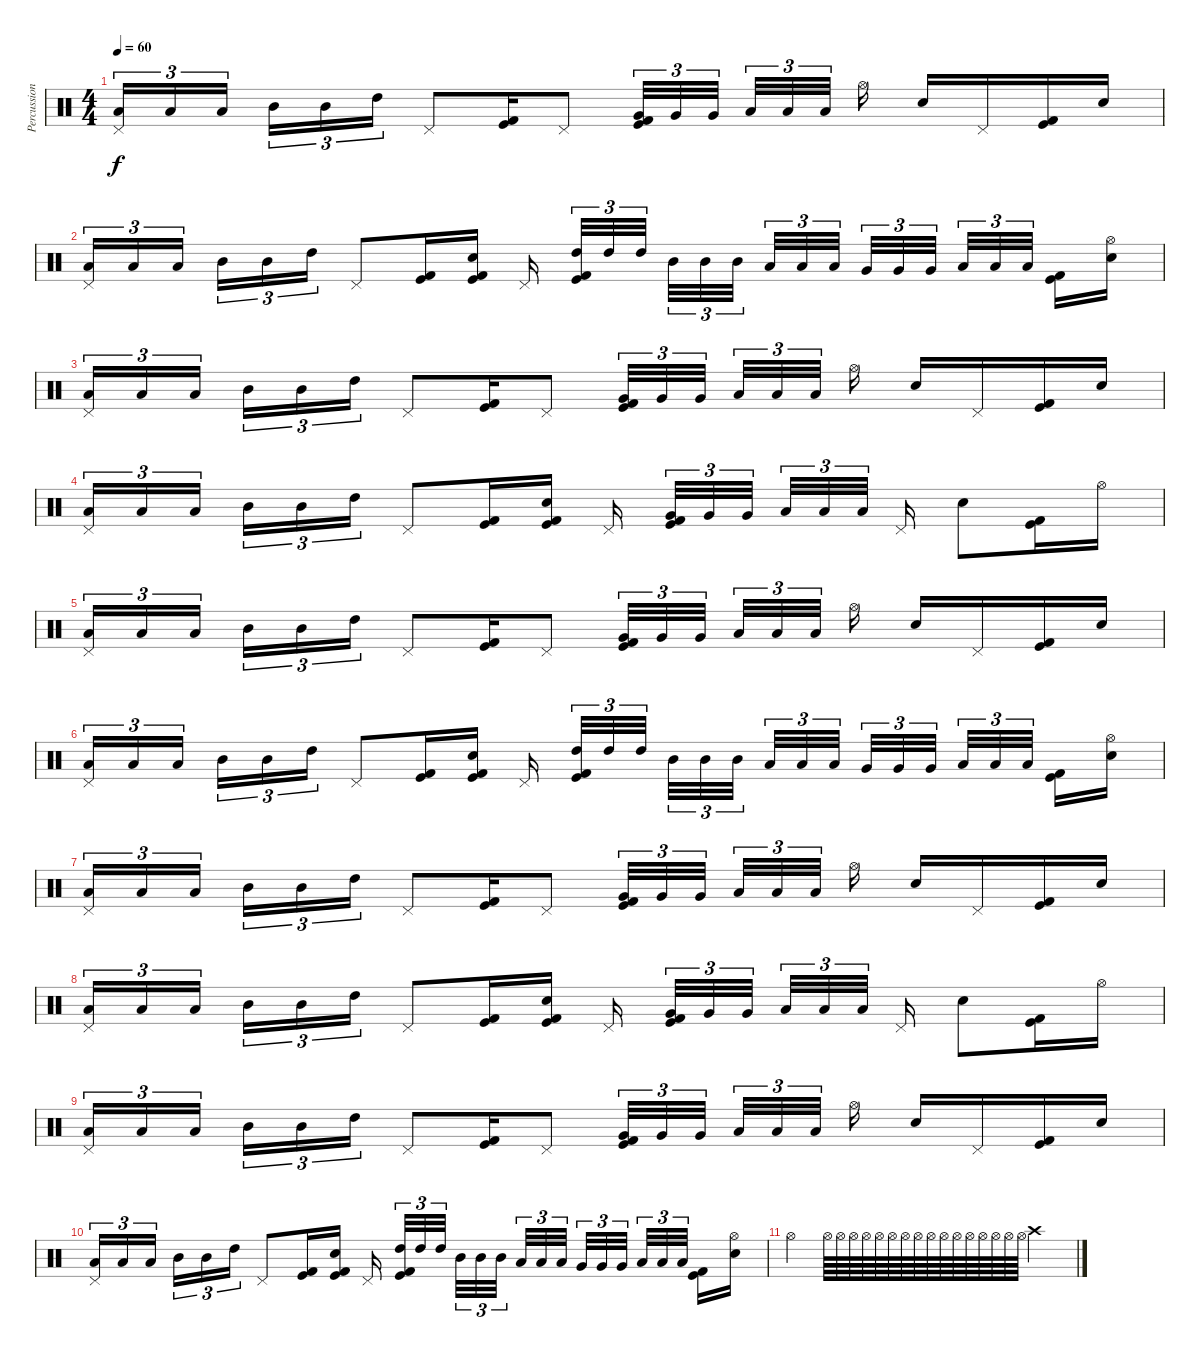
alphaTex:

\track ("Percussion" "Percussion") {instrument percussion}
\staff {score}
\articulation defaults
\ts (4 4)
\tempo 60
\clef neutral
\ks c
("Pedal Hi-Hat (hit)" "Low Tom (hit)").16{tu (3 2) dy f} "Low Tom (hit)".16{tu (3 2)} "Low Tom (hit)".16{tu (3 2)} "Mid Tom (hit)".16{tu (3 2)} "Mid Tom (hit)".16{tu (3 2)} "High Tom (hit)".16{tu (3 2)} "Pedal Hi-Hat (hit)".8 ("Kick (hit) 2" "Kick (hit)").16 "Pedal Hi-Hat (hit)".8 ("Very Low Tom (hit)" "Kick (hit) 2" "Kick (hit)").32{tu (3 2)} "Very Low Tom (hit)".32{tu (3 2)} "Very Low Tom (hit)".32{tu (3 2)} "Low Floor Tom (hit)".32{tu (3 2)} "Low Floor Tom (hit)".32{tu (3 2)} "Low Floor Tom (hit)".32{tu (3 2)} "Hi-Hat (open)".16 "Snare (hit) 2".16 "Pedal Hi-Hat (hit)".16 ("Kick (hit) 2" "Kick (hit)").16 "Snare (hit) 2".16 |
("Pedal Hi-Hat (hit)" "Low Tom (hit)").16{tu (3 2)} "Low Tom (hit)".16{tu (3 2)} "Low Tom (hit)".16{tu (3 2)} "Mid Tom (hit)".16{tu (3 2)} "Mid Tom (hit)".16{tu (3 2)} "High Tom (hit)".16{tu (3 2)} "Pedal Hi-Hat (hit)".8 ("Kick (hit) 2" "Kick (hit)").16 ("Snare (hit) 2" "Kick (hit) 2" "Kick (hit)").16 "Pedal Hi-Hat (hit)".16 ("High Tom (hit)" "Kick (hit) 2" "Kick (hit)").32{tu (3 2)} "High Tom (hit)".32{tu (3 2)} "High Tom (hit)".32{tu (3 2)} "Mid Tom (hit)".32{tu (3 2)} "Mid Tom (hit)".32{tu (3 2)} "Mid Tom (hit)".32{tu (3 2)} "Low Tom (hit)".32{tu (3 2)} "Low Tom (hit)".32{tu (3 2)} "Low Tom (hit)".32{tu (3 2)} "Very Low Tom (hit)".32{tu (3 2)} "Very Low Tom (hit)".32{tu (3 2)} "Very Low Tom (hit)".32{tu (3 2)} "Low Floor Tom (hit)".32{tu (3 2)} "Low Floor Tom (hit)".32{tu (3 2)} "Low Floor Tom (hit)".32{tu (3 2)} ("Kick (hit) 2" "Kick (hit)").16 ("Hi-Hat (open)" "Snare (hit) 2").16 |
("Pedal Hi-Hat (hit)" "Low Tom (hit)").16{tu (3 2)} "Low Tom (hit)".16{tu (3 2)} "Low Tom (hit)".16{tu (3 2)} "Mid Tom (hit)".16{tu (3 2)} "Mid Tom (hit)".16{tu (3 2)} "High Tom (hit)".16{tu (3 2)} "Pedal Hi-Hat (hit)".8 ("Kick (hit) 2" "Kick (hit)").16 "Pedal Hi-Hat (hit)".8 ("Very Low Tom (hit)" "Kick (hit) 2" "Kick (hit)").32{tu (3 2)} "Very Low Tom (hit)".32{tu (3 2)} "Very Low Tom (hit)".32{tu (3 2)} "Low Floor Tom (hit)".32{tu (3 2)} "Low Floor Tom (hit)".32{tu (3 2)} "Low Floor Tom (hit)".32{tu (3 2)} "Hi-Hat (open)".16 "Snare (hit) 2".16 "Pedal Hi-Hat (hit)".16 ("Kick (hit) 2" "Kick (hit)").16 "Snare (hit) 2".16 |
("Pedal Hi-Hat (hit)" "Low Tom (hit)").16{tu (3 2)} "Low Tom (hit)".16{tu (3 2)} "Low Tom (hit)".16{tu (3 2)} "Mid Tom (hit)".16{tu (3 2)} "Mid Tom (hit)".16{tu (3 2)} "High Tom (hit)".16{tu (3 2)} "Pedal Hi-Hat (hit)".8 ("Kick (hit) 2" "Kick (hit)").16 ("Snare (hit) 2" "Kick (hit) 2" "Kick (hit)").16 "Pedal Hi-Hat (hit)".16 ("Very Low Tom (hit)" "Kick (hit) 2" "Kick (hit)").32{tu (3 2)} "Very Low Tom (hit)".32{tu (3 2)} "Very Low Tom (hit)".32{tu (3 2)} "Low Floor Tom (hit)".32{tu (3 2)} "Low Floor Tom (hit)".32{tu (3 2)} "Low Floor Tom (hit)".32{tu (3 2)} "Pedal Hi-Hat (hit)".16 "Snare (hit) 2".8 ("Kick (hit) 2" "Kick (hit)").16 "Hi-Hat (open)".16 |
("Pedal Hi-Hat (hit)" "Low Tom (hit)").16{tu (3 2)} "Low Tom (hit)".16{tu (3 2)} "Low Tom (hit)".16{tu (3 2)} "Mid Tom (hit)".16{tu (3 2)} "Mid Tom (hit)".16{tu (3 2)} "High Tom (hit)".16{tu (3 2)} "Pedal Hi-Hat (hit)".8 ("Kick (hit) 2" "Kick (hit)").16 "Pedal Hi-Hat (hit)".8 ("Very Low Tom (hit)" "Kick (hit) 2" "Kick (hit)").32{tu (3 2)} "Very Low Tom (hit)".32{tu (3 2)} "Very Low Tom (hit)".32{tu (3 2)} "Low Floor Tom (hit)".32{tu (3 2)} "Low Floor Tom (hit)".32{tu (3 2)} "Low Floor Tom (hit)".32{tu (3 2)} "Hi-Hat (open)".16 "Snare (hit) 2".16 "Pedal Hi-Hat (hit)".16 ("Kick (hit) 2" "Kick (hit)").16 "Snare (hit) 2".16 |
("Pedal Hi-Hat (hit)" "Low Tom (hit)").16{tu (3 2)} "Low Tom (hit)".16{tu (3 2)} "Low Tom (hit)".16{tu (3 2)} "Mid Tom (hit)".16{tu (3 2)} "Mid Tom (hit)".16{tu (3 2)} "High Tom (hit)".16{tu (3 2)} "Pedal Hi-Hat (hit)".8 ("Kick (hit) 2" "Kick (hit)").16 ("Snare (hit) 2" "Kick (hit) 2" "Kick (hit)").16 "Pedal Hi-Hat (hit)".16 ("High Tom (hit)" "Kick (hit) 2" "Kick (hit)").32{tu (3 2)} "High Tom (hit)".32{tu (3 2)} "High Tom (hit)".32{tu (3 2)} "Mid Tom (hit)".32{tu (3 2)} "Mid Tom (hit)".32{tu (3 2)} "Mid Tom (hit)".32{tu (3 2)} "Low Tom (hit)".32{tu (3 2)} "Low Tom (hit)".32{tu (3 2)} "Low Tom (hit)".32{tu (3 2)} "Very Low Tom (hit)".32{tu (3 2)} "Very Low Tom (hit)".32{tu (3 2)} "Very Low Tom (hit)".32{tu (3 2)} "Low Floor Tom (hit)".32{tu (3 2)} "Low Floor Tom (hit)".32{tu (3 2)} "Low Floor Tom (hit)".32{tu (3 2)} ("Kick (hit) 2" "Kick (hit)").16 ("Hi-Hat (open)" "Snare (hit) 2").16 |
("Pedal Hi-Hat (hit)" "Low Tom (hit)").16{tu (3 2)} "Low Tom (hit)".16{tu (3 2)} "Low Tom (hit)".16{tu (3 2)} "Mid Tom (hit)".16{tu (3 2)} "Mid Tom (hit)".16{tu (3 2)} "High Tom (hit)".16{tu (3 2)} "Pedal Hi-Hat (hit)".8 ("Kick (hit) 2" "Kick (hit)").16 "Pedal Hi-Hat (hit)".8 ("Very Low Tom (hit)" "Kick (hit) 2" "Kick (hit)").32{tu (3 2)} "Very Low Tom (hit)".32{tu (3 2)} "Very Low Tom (hit)".32{tu (3 2)} "Low Floor Tom (hit)".32{tu (3 2)} "Low Floor Tom (hit)".32{tu (3 2)} "Low Floor Tom (hit)".32{tu (3 2)} "Hi-Hat (open)".16 "Snare (hit) 2".16 "Pedal Hi-Hat (hit)".16 ("Kick (hit) 2" "Kick (hit)").16 "Snare (hit) 2".16 |
("Pedal Hi-Hat (hit)" "Low Tom (hit)").16{tu (3 2)} "Low Tom (hit)".16{tu (3 2)} "Low Tom (hit)".16{tu (3 2)} "Mid Tom (hit)".16{tu (3 2)} "Mid Tom (hit)".16{tu (3 2)} "High Tom (hit)".16{tu (3 2)} "Pedal Hi-Hat (hit)".8 ("Kick (hit) 2" "Kick (hit)").16 ("Snare (hit) 2" "Kick (hit) 2" "Kick (hit)").16 "Pedal Hi-Hat (hit)".16 ("Very Low Tom (hit)" "Kick (hit) 2" "Kick (hit)").32{tu (3 2)} "Very Low Tom (hit)".32{tu (3 2)} "Very Low Tom (hit)".32{tu (3 2)} "Low Floor Tom (hit)".32{tu (3 2)} "Low Floor Tom (hit)".32{tu (3 2)} "Low Floor Tom (hit)".32{tu (3 2)} "Pedal Hi-Hat (hit)".16 "Snare (hit) 2".8 ("Kick (hit) 2" "Kick (hit)").16 "Hi-Hat (open)".16 |
("Pedal Hi-Hat (hit)" "Low Tom (hit)").16{tu (3 2)} "Low Tom (hit)".16{tu (3 2)} "Low Tom (hit)".16{tu (3 2)} "Mid Tom (hit)".16{tu (3 2)} "Mid Tom (hit)".16{tu (3 2)} "High Tom (hit)".16{tu (3 2)} "Pedal Hi-Hat (hit)".8 ("Kick (hit) 2" "Kick (hit)").16 "Pedal Hi-Hat (hit)".8 ("Very Low Tom (hit)" "Kick (hit) 2" "Kick (hit)").32{tu (3 2)} "Very Low Tom (hit)".32{tu (3 2)} "Very Low Tom (hit)".32{tu (3 2)} "Low Floor Tom (hit)".32{tu (3 2)} "Low Floor Tom (hit)".32{tu (3 2)} "Low Floor Tom (hit)".32{tu (3 2)} "Hi-Hat (open)".16 "Snare (hit) 2".16 "Pedal Hi-Hat (hit)".16 ("Kick (hit) 2" "Kick (hit)").16 "Snare (hit) 2".16 |
("Pedal Hi-Hat (hit)" "Low Tom (hit)").16{tu (3 2)} "Low Tom (hit)".16{tu (3 2)} "Low Tom (hit)".16{tu (3 2)} "Mid Tom (hit)".16{tu (3 2)} "Mid Tom (hit)".16{tu (3 2)} "High Tom (hit)".16{tu (3 2)} "Pedal Hi-Hat (hit)".8 ("Kick (hit) 2" "Kick (hit)").16 ("Snare (hit) 2" "Kick (hit) 2" "Kick (hit)").16 "Pedal Hi-Hat (hit)".16 ("High Tom (hit)" "Kick (hit) 2" "Kick (hit)").32{tu (3 2)} "High Tom (hit)".32{tu (3 2)} "High Tom (hit)".32{tu (3 2)} "Mid Tom (hit)".32{tu (3 2)} "Mid Tom (hit)".32{tu (3 2)} "Mid Tom (hit)".32{tu (3 2)} "Low Tom (hit)".32{tu (3 2)} "Low Tom (hit)".32{tu (3 2)} "Low Tom (hit)".32{tu (3 2)} "Very Low Tom (hit)".32{tu (3 2)} "Very Low Tom (hit)".32{tu (3 2)} "Very Low Tom (hit)".32{tu (3 2)} "Low Floor Tom (hit)".32{tu (3 2)} "Low Floor Tom (hit)".32{tu (3 2)} "Low Floor Tom (hit)".32{tu (3 2)} ("Kick (hit) 2" "Kick (hit)").16 ("Hi-Hat (open)" "Snare (hit) 2").16 |
"Hi-Hat (open)".4 "Hi-Hat (open)".64 "Hi-Hat (open)".64 "Hi-Hat (open)".64 "Hi-Hat (open)".64 "Hi-Hat (open)".64 "Hi-Hat (open)".64 "Hi-Hat (open)".64 "Hi-Hat (open)".64 "Hi-Hat (open)".64 "Hi-Hat (open)".64 "Hi-Hat (open)".64 "Hi-Hat (open)".64 "Hi-Hat (open)".64 "Hi-Hat (open)".64 "Hi-Hat (open)".64 "Hi-Hat (open)".64 "Crash high (hit)".2
